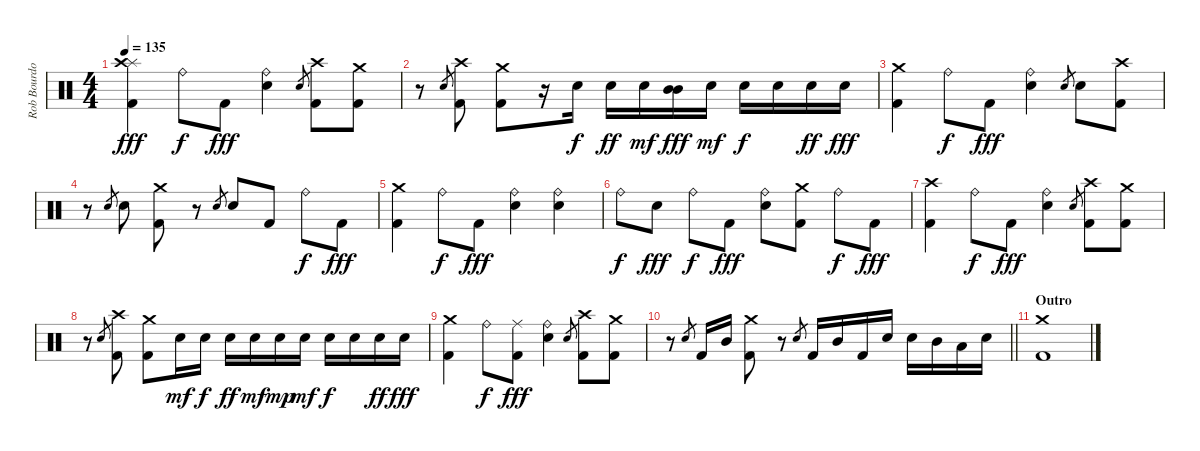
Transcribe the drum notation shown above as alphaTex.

\track ("Rob Bourdon - Beats & Drums" "Rob Bourdo") {instrument percussion}
\staff {score}
\articulation defaults
\ts (4 4)
\tempo 135
\clef neutral
\ks c
("Splash (hit)" "Crash high (hit)" "Kick (hit) 2").4{dy fff} "Ride (bell)".8{dy f} "Kick (hit) 2".8{dy fff} ("Ride (bell)" "Electric Snare (hit)").4 "Electric Snare (hit)".8{gr} ("Crash high (hit)" "Kick (hit) 2").8 ("Crash medium (hit)" "Kick (hit) 2").8 |
r.8 "Electric Snare (hit)".8{gr} ("Crash high (hit)" "Kick (hit) 2").8 ("Crash medium (hit)" "Kick (hit) 2").8 r.16 "Electric Snare (hit)".16{dy f} "Electric Snare (hit)".16{dy ff} "Electric Snare (hit)".16{dy mf} ("Mid Tom (hit)" "Mid Tom (hit)").16{dy fff} "Electric Snare (hit)".16{dy mf} "Electric Snare (hit)".16{dy f} "Electric Snare (hit)".16 "Electric Snare (hit)".16{dy ff} "Electric Snare (hit)".16{dy fff} |
("Crash medium (hit)" "Kick (hit) 2").4 "Ride (bell)".8{dy f} "Kick (hit) 2".8{dy fff} ("Ride (bell)" "Electric Snare (hit)").4 "Electric Snare (hit)".8{gr} "Electric Snare (hit)".8 ("Crash high (hit)" "Kick (hit) 2").8 |
r.8 "Electric Snare (hit)".8{gr} "Electric Snare (hit)".8 ("Crash medium (hit)" "Kick (hit) 2").8 r.8 "Electric Snare (hit)".8{gr} "Electric Snare (hit)".8 "Kick (hit) 2".8 "Ride (bell)".8{dy f} "Kick (hit) 2".8{dy fff} |
("Crash medium (hit)" "Kick (hit) 2").4 "Ride (bell)".8{dy f} "Kick (hit) 2".8{dy fff} ("Ride (bell)" "Electric Snare (hit)").4 ("Ride (bell)" "Electric Snare (hit)").4 |
"Ride (bell)".8{dy f} "Electric Snare (hit)".8{dy fff} "Ride (bell)".8{dy f} "Kick (hit) 2".8{dy fff} ("Ride (bell)" "Electric Snare (hit)").8 ("Crash medium (hit)" "Kick (hit) 2").8 "Ride (bell)".8{dy f} "Kick (hit) 2".8{dy fff} |
("Crash high (hit)" "Kick (hit) 2").4 "Ride (bell)".8{dy f} "Kick (hit) 2".8{dy fff} ("Ride (bell)" "Electric Snare (hit)").4 "Electric Snare (hit)".8{gr} ("Crash high (hit)" "Kick (hit) 2").8 ("Crash medium (hit)" "Kick (hit) 2").8 |
r.8 "Electric Snare (hit)".8{gr} ("Crash high (hit)" "Kick (hit) 2").8 ("Crash medium (hit)" "Kick (hit) 2").8 "Electric Snare (hit)".16{dy mf} "Electric Snare (hit)".16{dy f} "Electric Snare (hit)".16{dy ff} "Electric Snare (hit)".16{dy mf} "Electric Snare (hit)".16{dy mp} "Electric Snare (hit)".16{dy mf} "Electric Snare (hit)".16{dy f} "Electric Snare (hit)".16 "Electric Snare (hit)".16{dy ff} "Electric Snare (hit)".16{dy fff} |
("Crash medium (hit)" "Kick (hit) 2").4 "Ride (bell)".8{dy f} ("Ride (middle)" "Kick (hit) 2").8{dy fff} ("Ride (bell)" "Electric Snare (hit)").4 "Electric Snare (hit)".8{gr} ("Crash high (hit)" "Kick (hit) 2").8 ("Crash medium (hit)" "Kick (hit) 2").8 |
\barLineRight lightlight
r.8 "Electric Snare (hit)".8{gr} "Kick (hit) 2".16 "Mid Tom (hit)".16 ("Crash medium (hit)" "Kick (hit) 2").8 r.8 "Electric Snare (hit)".8{gr} "Kick (hit) 2".16 "Mid Tom (hit)".16 "Kick (hit) 2".16 "Electric Snare (hit)".16 "Electric Snare (hit)".16 "Mid Tom (hit)".16 "Low Tom (hit)".16 "Electric Snare (hit)".16 |
\section ("" "Outro")
("Crash medium (hit)" "Kick (hit) 2").1
